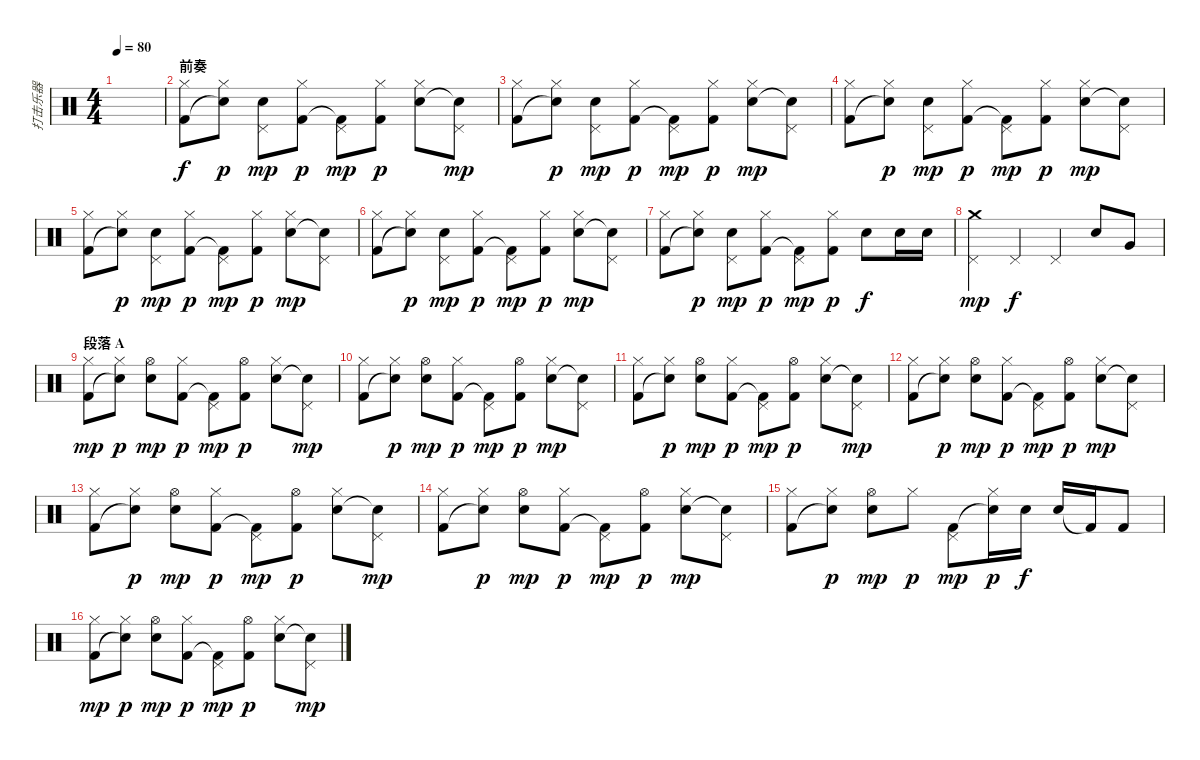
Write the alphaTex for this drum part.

\track ("打击乐器" "打击乐器") {instrument percussion}
\staff {score}
\articulation defaults
\ts (4 4)
\tempo 80
\clef neutral
\ks c
|
\section ("" "前奏")
("Hi-Hat (closed)" "Kick (hit) 2").8 ("Hi-Hat (closed)" "Snare (hit)"{t}).8{dy p} ("Pedal Hi-Hat (hit)" "Electric Snare (hit)").8{dy mp} ("Hi-Hat (closed)" "Kick (hit) 2").8{dy p} ("Pedal Hi-Hat (hit)" "Kick (hit) 2"{t}).8{dy mp} ("Hi-Hat (closed)" "Kick (hit) 2").8{dy p} ("Hi-Hat (closed)" "Electric Snare (hit)").8 ("Pedal Hi-Hat (hit)" "Snare (hit)"{t}).8{dy mp} |
("Hi-Hat (closed)" "Kick (hit) 2").8 ("Hi-Hat (closed)" "Snare (hit)"{t}).8{dy p} ("Pedal Hi-Hat (hit)" "Electric Snare (hit)").8{dy mp} ("Hi-Hat (closed)" "Kick (hit) 2").8{dy p} ("Pedal Hi-Hat (hit)" "Kick (hit) 2"{t}).8{dy mp} ("Hi-Hat (closed)" "Kick (hit) 2").8{dy p} ("Hi-Hat (closed)" "Electric Snare (hit)").8{dy mp} ("Pedal Hi-Hat (hit)" "Snare (hit)"{t}).8 |
("Hi-Hat (closed)" "Kick (hit) 2").8 ("Hi-Hat (closed)" "Snare (hit)"{t}).8{dy p} ("Pedal Hi-Hat (hit)" "Electric Snare (hit)").8{dy mp} ("Hi-Hat (closed)" "Kick (hit) 2").8{dy p} ("Pedal Hi-Hat (hit)" "Kick (hit) 2"{t}).8{dy mp} ("Hi-Hat (closed)" "Kick (hit) 2").8{dy p} ("Hi-Hat (closed)" "Electric Snare (hit)").8{dy mp} ("Pedal Hi-Hat (hit)" "Snare (hit)"{t}).8 |
("Hi-Hat (closed)" "Kick (hit) 2").8 ("Hi-Hat (closed)" "Snare (hit)"{t}).8{dy p} ("Pedal Hi-Hat (hit)" "Electric Snare (hit)").8{dy mp} ("Hi-Hat (closed)" "Kick (hit) 2").8{dy p} ("Pedal Hi-Hat (hit)" "Kick (hit) 2"{t}).8{dy mp} ("Hi-Hat (closed)" "Kick (hit) 2").8{dy p} ("Hi-Hat (closed)" "Electric Snare (hit)").8{dy mp} ("Pedal Hi-Hat (hit)" "Snare (hit)"{t}).8 |
("Hi-Hat (closed)" "Kick (hit) 2").8 ("Hi-Hat (closed)" "Snare (hit)"{t}).8{dy p} ("Pedal Hi-Hat (hit)" "Electric Snare (hit)").8{dy mp} ("Hi-Hat (closed)" "Kick (hit) 2").8{dy p} ("Pedal Hi-Hat (hit)" "Kick (hit) 2"{t}).8{dy mp} ("Hi-Hat (closed)" "Kick (hit) 2").8{dy p} ("Hi-Hat (closed)" "Electric Snare (hit)").8{dy mp} ("Pedal Hi-Hat (hit)" "Snare (hit)"{t}).8 |
("Hi-Hat (closed)" "Kick (hit) 2").8 ("Hi-Hat (closed)" "Snare (hit)"{t}).8{dy p} ("Pedal Hi-Hat (hit)" "Electric Snare (hit)").8{dy mp} ("Hi-Hat (closed)" "Kick (hit) 2").8{dy p} ("Pedal Hi-Hat (hit)" "Kick (hit) 2"{t}).8{dy mp} ("Hi-Hat (closed)" "Kick (hit) 2").8{dy p} "Electric Snare (hit)".8{dy f} "Electric Snare (hit)".16 "Electric Snare (hit)".16 |
("Pedal Hi-Hat (hit)" "Crash medium (hit)").4{dy mp} "Pedal Hi-Hat (hit)".4{dy f} "Pedal Hi-Hat (hit)".4 "Electric Snare (hit)".8 "Very Low Tom (hit)".8 |
\section ("" "段落 A")
("Hi-Hat (closed)" "Kick (hit) 2").8{dy mp} ("Hi-Hat (closed)" "Snare (hit)"{t}).8{dy p} ("Hi-Hat (open)" "Electric Snare (hit)").8{dy mp} ("Hi-Hat (closed)" "Kick (hit) 2").8{dy p} ("Pedal Hi-Hat (hit)" "Kick (hit) 2"{t}).8{dy mp} ("Hi-Hat (open)" "Kick (hit) 2").8{dy p} ("Hi-Hat (closed)" "Electric Snare (hit)").8 ("Pedal Hi-Hat (hit)" "Snare (hit)"{t}).8{dy mp} |
("Hi-Hat (closed)" "Kick (hit) 2").8 ("Hi-Hat (closed)" "Snare (hit)"{t}).8{dy p} ("Hi-Hat (open)" "Electric Snare (hit)").8{dy mp} ("Hi-Hat (closed)" "Kick (hit) 2").8{dy p} ("Pedal Hi-Hat (hit)" "Kick (hit) 2"{t}).8{dy mp} ("Hi-Hat (open)" "Kick (hit) 2").8{dy p} ("Hi-Hat (closed)" "Electric Snare (hit)").8{dy mp} ("Pedal Hi-Hat (hit)" "Snare (hit)"{t}).8 |
("Hi-Hat (closed)" "Kick (hit) 2").8 ("Hi-Hat (closed)" "Snare (hit)"{t}).8{dy p} ("Hi-Hat (open)" "Electric Snare (hit)").8{dy mp} ("Hi-Hat (closed)" "Kick (hit) 2").8{dy p} ("Pedal Hi-Hat (hit)" "Kick (hit) 2"{t}).8{dy mp} ("Hi-Hat (open)" "Kick (hit) 2").8{dy p} ("Hi-Hat (closed)" "Electric Snare (hit)").8 ("Pedal Hi-Hat (hit)" "Snare (hit)"{t}).8{dy mp} |
("Hi-Hat (closed)" "Kick (hit) 2").8 ("Hi-Hat (closed)" "Snare (hit)"{t}).8{dy p} ("Hi-Hat (open)" "Electric Snare (hit)").8{dy mp} ("Hi-Hat (closed)" "Kick (hit) 2").8{dy p} ("Pedal Hi-Hat (hit)" "Kick (hit) 2"{t}).8{dy mp} ("Hi-Hat (open)" "Kick (hit) 2").8{dy p} ("Hi-Hat (closed)" "Electric Snare (hit)").8{dy mp} ("Pedal Hi-Hat (hit)" "Snare (hit)"{t}).8 |
("Hi-Hat (closed)" "Kick (hit) 2").8 ("Hi-Hat (closed)" "Snare (hit)"{t}).8{dy p} ("Hi-Hat (open)" "Electric Snare (hit)").8{dy mp} ("Hi-Hat (closed)" "Kick (hit) 2").8{dy p} ("Pedal Hi-Hat (hit)" "Kick (hit) 2"{t}).8{dy mp} ("Hi-Hat (open)" "Kick (hit) 2").8{dy p} ("Hi-Hat (closed)" "Electric Snare (hit)").8 ("Pedal Hi-Hat (hit)" "Snare (hit)"{t}).8{dy mp} |
("Hi-Hat (closed)" "Kick (hit) 2").8 ("Hi-Hat (closed)" "Snare (hit)"{t}).8{dy p} ("Hi-Hat (open)" "Electric Snare (hit)").8{dy mp} ("Hi-Hat (closed)" "Kick (hit) 2").8{dy p} ("Pedal Hi-Hat (hit)" "Kick (hit) 2"{t}).8{dy mp} ("Hi-Hat (open)" "Kick (hit) 2").8{dy p} ("Hi-Hat (closed)" "Electric Snare (hit)").8{dy mp} ("Pedal Hi-Hat (hit)" "Snare (hit)"{t}).8 |
("Hi-Hat (closed)" "Kick (hit) 2").8 ("Hi-Hat (closed)" "Snare (hit)"{t}).8{dy p} ("Hi-Hat (open)" "Electric Snare (hit)").8{dy mp} "Hi-Hat (closed)".8{dy p} ("Pedal Hi-Hat (hit)" "Kick (hit) 2").8{dy mp} ("Hi-Hat (closed)" "Electric Snare (hit)"{t}).16{dy p} "Electric Snare (hit)".16{dy f} "Electric Snare (hit)".16 "Kick (hit) 2"{t}.16 "Kick (hit) 2".8 |
("Hi-Hat (closed)" "Kick (hit) 2").8{dy mp} ("Hi-Hat (closed)" "Snare (hit)"{t}).8{dy p} ("Hi-Hat (open)" "Electric Snare (hit)").8{dy mp} ("Hi-Hat (closed)" "Kick (hit) 2").8{dy p} ("Pedal Hi-Hat (hit)" "Kick (hit) 2"{t}).8{dy mp} ("Hi-Hat (open)" "Kick (hit) 2").8{dy p} ("Hi-Hat (closed)" "Electric Snare (hit)").8 ("Pedal Hi-Hat (hit)" "Snare (hit)"{t}).8{dy mp}
